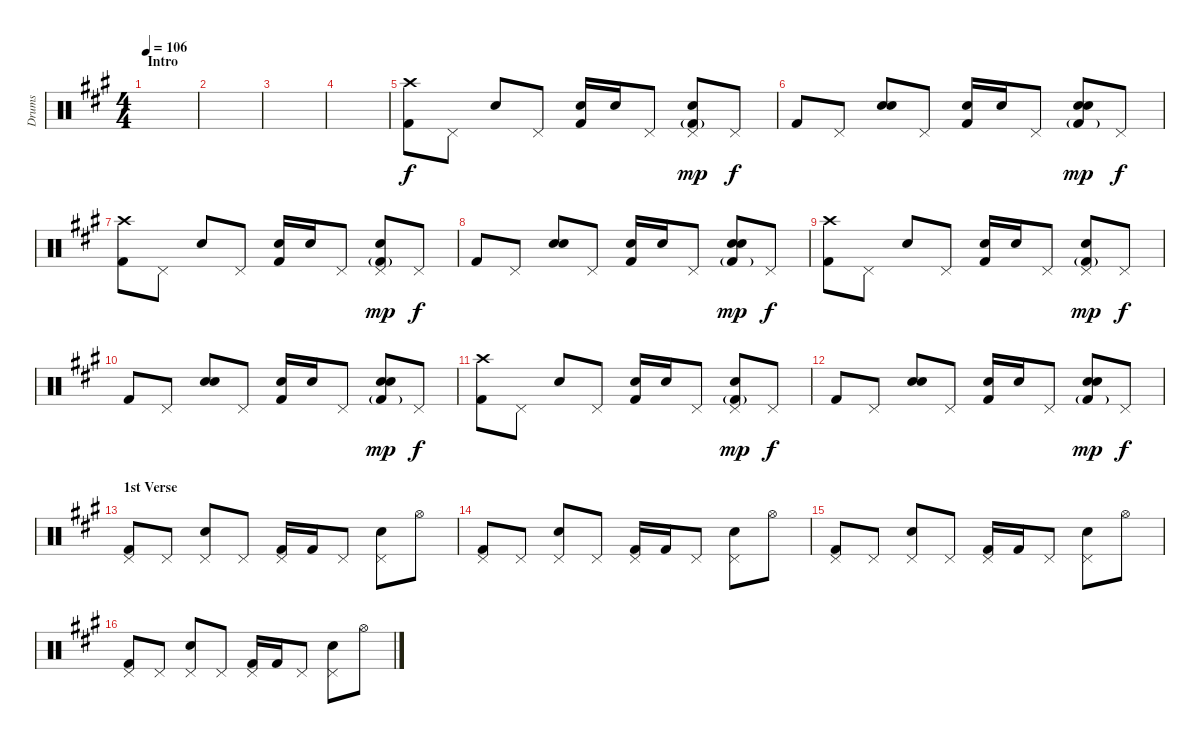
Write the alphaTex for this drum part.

\track ("Drums" "Drums") {instrument percussion}
\staff {score}
\articulation defaults
\ts (4 4)
\section ("" "Intro")
\tempo 106
\clef neutral
\ks a
|
|
|
|
("Crash high (hit)" "Kick (hit) 2").8 "Pedal Hi-Hat (hit)".8 "Electric Snare (hit)".8 "Pedal Hi-Hat (hit)".8 ("Snare (hit)"{x} "Kick (hit) 2").16 "Electric Snare (hit)".16 "Pedal Hi-Hat (hit)".8 ("Pedal Hi-Hat (hit)"{x} "Electric Snare (hit)" "Kick (hit) 2"{g}).8{dy mp} "Pedal Hi-Hat (hit)".8{dy f} |
"Kick (hit) 2".8 "Pedal Hi-Hat (hit)".8 ("Snare (hit)"{x} "Electric Snare (hit)").8 "Pedal Hi-Hat (hit)".8 ("Snare (hit)"{x} "Kick (hit) 2").16 "Electric Snare (hit)".16 "Pedal Hi-Hat (hit)".8 ("Snare (hit)"{x} "Electric Snare (hit)" "Kick (hit) 2"{g}).8{dy mp} "Pedal Hi-Hat (hit)".8{dy f} |
("Crash high (hit)" "Kick (hit) 2").8 "Pedal Hi-Hat (hit)".8 "Electric Snare (hit)".8 "Pedal Hi-Hat (hit)".8 ("Snare (hit)"{x} "Kick (hit) 2").16 "Electric Snare (hit)".16 "Pedal Hi-Hat (hit)".8 ("Pedal Hi-Hat (hit)"{x} "Electric Snare (hit)" "Kick (hit) 2"{g}).8{dy mp} "Pedal Hi-Hat (hit)".8{dy f} |
"Kick (hit) 2".8 "Pedal Hi-Hat (hit)".8 ("Snare (hit)"{x} "Electric Snare (hit)").8 "Pedal Hi-Hat (hit)".8 ("Snare (hit)"{x} "Kick (hit) 2").16 "Electric Snare (hit)".16 "Pedal Hi-Hat (hit)".8 ("Snare (hit)"{x} "Electric Snare (hit)" "Kick (hit) 2"{g}).8{dy mp} "Pedal Hi-Hat (hit)".8{dy f} |
("Crash high (hit)" "Kick (hit) 2").8 "Pedal Hi-Hat (hit)".8 "Electric Snare (hit)".8 "Pedal Hi-Hat (hit)".8 ("Snare (hit)"{x} "Kick (hit) 2").16 "Electric Snare (hit)".16 "Pedal Hi-Hat (hit)".8 ("Pedal Hi-Hat (hit)"{x} "Electric Snare (hit)" "Kick (hit) 2"{g}).8{dy mp} "Pedal Hi-Hat (hit)".8{dy f} |
"Kick (hit) 2".8 "Pedal Hi-Hat (hit)".8 ("Snare (hit)"{x} "Electric Snare (hit)").8 "Pedal Hi-Hat (hit)".8 ("Snare (hit)"{x} "Kick (hit) 2").16 "Electric Snare (hit)".16 "Pedal Hi-Hat (hit)".8 ("Snare (hit)"{x} "Electric Snare (hit)" "Kick (hit) 2"{g}).8{dy mp} "Pedal Hi-Hat (hit)".8{dy f} |
("Crash high (hit)" "Kick (hit) 2").8 "Pedal Hi-Hat (hit)".8 "Electric Snare (hit)".8 "Pedal Hi-Hat (hit)".8 ("Snare (hit)"{x} "Kick (hit) 2").16 "Electric Snare (hit)".16 "Pedal Hi-Hat (hit)".8 ("Pedal Hi-Hat (hit)"{x} "Electric Snare (hit)" "Kick (hit) 2"{g}).8{dy mp} "Pedal Hi-Hat (hit)".8{dy f} |
"Kick (hit) 2".8 "Pedal Hi-Hat (hit)".8 ("Snare (hit)"{x} "Electric Snare (hit)").8 "Pedal Hi-Hat (hit)".8 ("Snare (hit)"{x} "Kick (hit) 2").16 "Electric Snare (hit)".16 "Pedal Hi-Hat (hit)".8 ("Snare (hit)"{x} "Electric Snare (hit)" "Kick (hit) 2"{g}).8{dy mp} "Pedal Hi-Hat (hit)".8{dy f} |
\section ("" "1st Verse")
("Pedal Hi-Hat (hit)" "Kick (hit) 2").8 "Pedal Hi-Hat (hit)".8 ("Pedal Hi-Hat (hit)" "Electric Snare (hit)").8 "Pedal Hi-Hat (hit)".8 ("Pedal Hi-Hat (hit)" "Kick (hit) 2").16 "Kick (hit) 2".16 "Pedal Hi-Hat (hit)".8 ("Pedal Hi-Hat (hit)" "Electric Snare (hit)").8 "Hi-Hat (open)".8 |
("Pedal Hi-Hat (hit)" "Kick (hit) 2").8 "Pedal Hi-Hat (hit)".8 ("Pedal Hi-Hat (hit)" "Electric Snare (hit)").8 "Pedal Hi-Hat (hit)".8 ("Pedal Hi-Hat (hit)" "Kick (hit) 2").16 "Kick (hit) 2".16 "Pedal Hi-Hat (hit)".8 ("Pedal Hi-Hat (hit)" "Electric Snare (hit)").8 "Hi-Hat (open)".8 |
("Pedal Hi-Hat (hit)" "Kick (hit) 2").8 "Pedal Hi-Hat (hit)".8 ("Pedal Hi-Hat (hit)" "Electric Snare (hit)").8 "Pedal Hi-Hat (hit)".8 ("Pedal Hi-Hat (hit)" "Kick (hit) 2").16 "Kick (hit) 2".16 "Pedal Hi-Hat (hit)".8 ("Pedal Hi-Hat (hit)" "Electric Snare (hit)").8 "Hi-Hat (open)".8 |
("Pedal Hi-Hat (hit)" "Kick (hit) 2").8 "Pedal Hi-Hat (hit)".8 ("Pedal Hi-Hat (hit)" "Electric Snare (hit)").8 "Pedal Hi-Hat (hit)".8 ("Pedal Hi-Hat (hit)" "Kick (hit) 2").16 "Kick (hit) 2".16 "Pedal Hi-Hat (hit)".8 ("Pedal Hi-Hat (hit)" "Electric Snare (hit)").8 "Hi-Hat (open)".8
